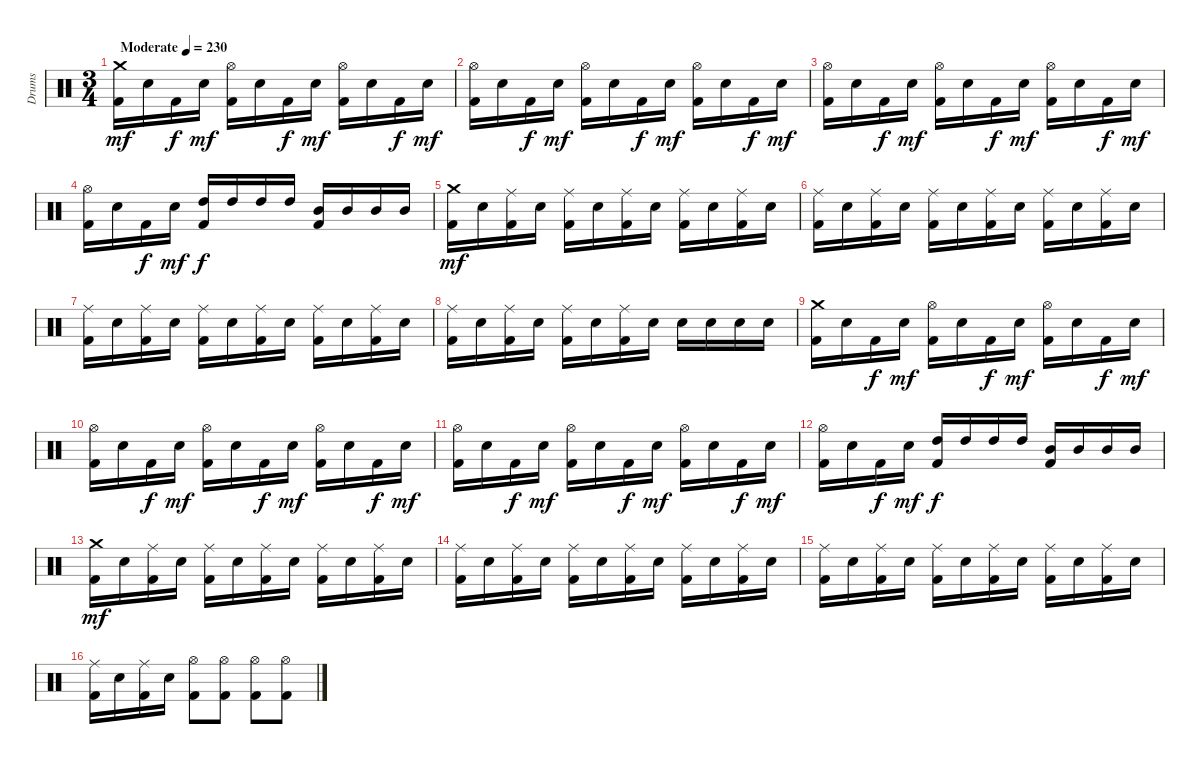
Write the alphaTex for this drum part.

\track ("Drums" "Drums") {instrument percussion}
\staff {score}
\articulation defaults
\ts (3 4)
\tempo (230 "Moderate")
\clef neutral
\ks c
("Crash medium (hit)" "Kick (hit) 2").16{dy mf} "Electric Snare (hit)".16 "Kick (hit) 2".16{dy f} "Electric Snare (hit)".16{dy mf} ("Hi-Hat (open)" "Kick (hit) 2").16 "Electric Snare (hit)".16 "Kick (hit) 2".16{dy f} "Electric Snare (hit)".16{dy mf} ("Hi-Hat (open)" "Kick (hit) 2").16 "Electric Snare (hit)".16 "Kick (hit) 2".16{dy f} "Electric Snare (hit)".16{dy mf} |
("Hi-Hat (open)" "Kick (hit) 2").16 "Electric Snare (hit)".16 "Kick (hit) 2".16{dy f} "Electric Snare (hit)".16{dy mf} ("Hi-Hat (open)" "Kick (hit) 2").16 "Electric Snare (hit)".16 "Kick (hit) 2".16{dy f} "Electric Snare (hit)".16{dy mf} ("Hi-Hat (open)" "Kick (hit) 2").16 "Electric Snare (hit)".16 "Kick (hit) 2".16{dy f} "Electric Snare (hit)".16{dy mf} |
("Hi-Hat (open)" "Kick (hit) 2").16 "Electric Snare (hit)".16 "Kick (hit) 2".16{dy f} "Electric Snare (hit)".16{dy mf} ("Hi-Hat (open)" "Kick (hit) 2").16 "Electric Snare (hit)".16 "Kick (hit) 2".16{dy f} "Electric Snare (hit)".16{dy mf} ("Hi-Hat (open)" "Kick (hit) 2").16 "Electric Snare (hit)".16 "Kick (hit) 2".16{dy f} "Electric Snare (hit)".16{dy mf} |
("Hi-Hat (open)" "Kick (hit) 2").16 "Electric Snare (hit)".16 "Kick (hit) 2".16{dy f} "Electric Snare (hit)".16{dy mf} ("High Tom (hit)" "Kick (hit) 2").16{dy f} "High Tom (hit)".16 "High Tom (hit)".16 "High Tom (hit)".16 ("Mid Tom (hit)" "Kick (hit) 2").16 "Mid Tom (hit)".16 "Mid Tom (hit)".16 "Mid Tom (hit)".16 |
("Crash medium (hit)" "Kick (hit) 2").16{dy mf} "Electric Snare (hit)".16 ("Ride (middle)" "Kick (hit) 2").16 "Electric Snare (hit)".16 ("Ride (middle)" "Kick (hit) 2").16 "Electric Snare (hit)".16 ("Ride (middle)" "Kick (hit) 2").16 "Electric Snare (hit)".16 ("Ride (middle)" "Kick (hit) 2").16 "Electric Snare (hit)".16 ("Ride (middle)" "Kick (hit) 2").16 "Electric Snare (hit)".16 |
("Ride (middle)" "Kick (hit) 2").16 "Electric Snare (hit)".16 ("Ride (middle)" "Kick (hit) 2").16 "Electric Snare (hit)".16 ("Ride (middle)" "Kick (hit) 2").16 "Electric Snare (hit)".16 ("Ride (middle)" "Kick (hit) 2").16 "Electric Snare (hit)".16 ("Ride (middle)" "Kick (hit) 2").16 "Electric Snare (hit)".16 ("Ride (middle)" "Kick (hit) 2").16 "Electric Snare (hit)".16 |
("Ride (middle)" "Kick (hit) 2").16 "Electric Snare (hit)".16 ("Ride (middle)" "Kick (hit) 2").16 "Electric Snare (hit)".16 ("Ride (middle)" "Kick (hit) 2").16 "Electric Snare (hit)".16 ("Ride (middle)" "Kick (hit) 2").16 "Electric Snare (hit)".16 ("Ride (middle)" "Kick (hit) 2").16 "Electric Snare (hit)".16 ("Ride (middle)" "Kick (hit) 2").16 "Electric Snare (hit)".16 |
("Ride (middle)" "Kick (hit) 2").16 "Electric Snare (hit)".16 ("Ride (middle)" "Kick (hit) 2").16 "Electric Snare (hit)".16 ("Ride (middle)" "Kick (hit) 2").16 "Electric Snare (hit)".16 ("Ride (middle)" "Kick (hit) 2").16 "Electric Snare (hit)".16 "Electric Snare (hit)".16 "Electric Snare (hit)".16 "Electric Snare (hit)".16 "Electric Snare (hit)".16 |
("Crash medium (hit)" "Kick (hit) 2").16 "Electric Snare (hit)".16 "Kick (hit) 2".16{dy f} "Electric Snare (hit)".16{dy mf} ("Hi-Hat (open)" "Kick (hit) 2").16 "Electric Snare (hit)".16 "Kick (hit) 2".16{dy f} "Electric Snare (hit)".16{dy mf} ("Hi-Hat (open)" "Kick (hit) 2").16 "Electric Snare (hit)".16 "Kick (hit) 2".16{dy f} "Electric Snare (hit)".16{dy mf} |
("Hi-Hat (open)" "Kick (hit) 2").16 "Electric Snare (hit)".16 "Kick (hit) 2".16{dy f} "Electric Snare (hit)".16{dy mf} ("Hi-Hat (open)" "Kick (hit) 2").16 "Electric Snare (hit)".16 "Kick (hit) 2".16{dy f} "Electric Snare (hit)".16{dy mf} ("Hi-Hat (open)" "Kick (hit) 2").16 "Electric Snare (hit)".16 "Kick (hit) 2".16{dy f} "Electric Snare (hit)".16{dy mf} |
("Hi-Hat (open)" "Kick (hit) 2").16 "Electric Snare (hit)".16 "Kick (hit) 2".16{dy f} "Electric Snare (hit)".16{dy mf} ("Hi-Hat (open)" "Kick (hit) 2").16 "Electric Snare (hit)".16 "Kick (hit) 2".16{dy f} "Electric Snare (hit)".16{dy mf} ("Hi-Hat (open)" "Kick (hit) 2").16 "Electric Snare (hit)".16 "Kick (hit) 2".16{dy f} "Electric Snare (hit)".16{dy mf} |
("Hi-Hat (open)" "Kick (hit) 2").16 "Electric Snare (hit)".16 "Kick (hit) 2".16{dy f} "Electric Snare (hit)".16{dy mf} ("High Tom (hit)" "Kick (hit) 2").16{dy f} "High Tom (hit)".16 "High Tom (hit)".16 "High Tom (hit)".16 ("Mid Tom (hit)" "Kick (hit) 2").16 "Mid Tom (hit)".16 "Mid Tom (hit)".16 "Mid Tom (hit)".16 |
("Crash medium (hit)" "Kick (hit) 2").16{dy mf} "Electric Snare (hit)".16 ("Ride (middle)" "Kick (hit) 2").16 "Electric Snare (hit)".16 ("Ride (middle)" "Kick (hit) 2").16 "Electric Snare (hit)".16 ("Ride (middle)" "Kick (hit) 2").16 "Electric Snare (hit)".16 ("Ride (middle)" "Kick (hit) 2").16 "Electric Snare (hit)".16 ("Ride (middle)" "Kick (hit) 2").16 "Electric Snare (hit)".16 |
("Ride (middle)" "Kick (hit) 2").16 "Electric Snare (hit)".16 ("Ride (middle)" "Kick (hit) 2").16 "Electric Snare (hit)".16 ("Ride (middle)" "Kick (hit) 2").16 "Electric Snare (hit)".16 ("Ride (middle)" "Kick (hit) 2").16 "Electric Snare (hit)".16 ("Ride (middle)" "Kick (hit) 2").16 "Electric Snare (hit)".16 ("Ride (middle)" "Kick (hit) 2").16 "Electric Snare (hit)".16 |
("Ride (middle)" "Kick (hit) 2").16 "Electric Snare (hit)".16 ("Ride (middle)" "Kick (hit) 2").16 "Electric Snare (hit)".16 ("Ride (middle)" "Kick (hit) 2").16 "Electric Snare (hit)".16 ("Ride (middle)" "Kick (hit) 2").16 "Electric Snare (hit)".16 ("Ride (middle)" "Kick (hit) 2").16 "Electric Snare (hit)".16 ("Ride (middle)" "Kick (hit) 2").16 "Electric Snare (hit)".16 |
("Ride (middle)" "Kick (hit) 2").16 "Electric Snare (hit)".16 ("Ride (middle)" "Kick (hit) 2").16 "Electric Snare (hit)".16 ("Hi-Hat (open)" "Kick (hit) 2").8 ("Hi-Hat (open)" "Kick (hit) 2").8 ("Hi-Hat (open)" "Kick (hit) 2").8 ("Hi-Hat (open)" "Kick (hit) 2").8
